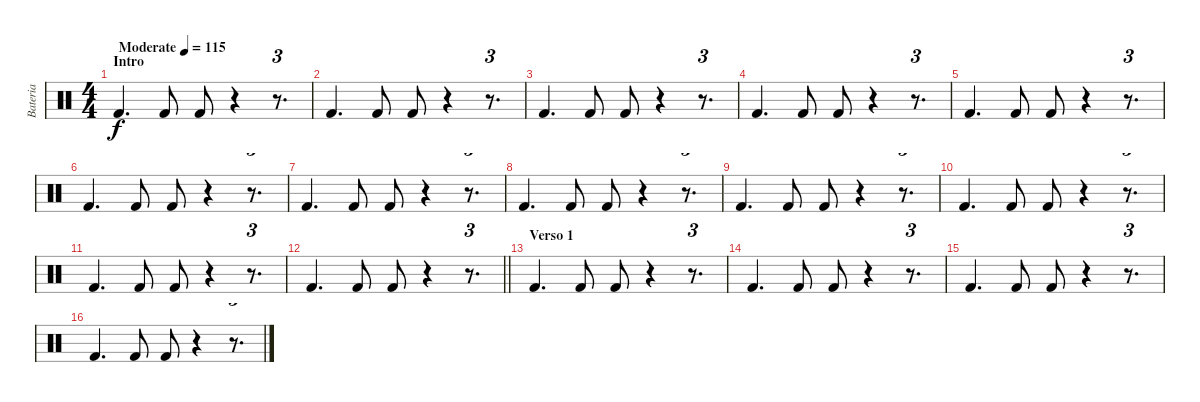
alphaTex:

\track ("Bateria" "Bateria") {instrument percussion}
\staff {score}
\articulation defaults
\ts (4 4)
\section ("" "Intro")
\tempo (115 "Moderate")
\clef neutral
\ks c "Kick (hit) 2".4{d dy f} "Kick (hit) 2".8 "Kick (hit) 2".8
r.4 r.8{d tu (3 2)} |
"Kick (hit) 2".4{d} "Kick (hit) 2".8 "Kick (hit) 2".8 r.4 r.8{d tu (3 2)} |
"Kick (hit) 2".4{d} "Kick (hit) 2".8 "Kick (hit) 2".8 r.4 r.8{d tu (3 2)} |
"Kick (hit) 2".4{d} "Kick (hit) 2".8 "Kick (hit) 2".8 r.4 r.8{d tu (3 2)} |
"Kick (hit) 2".4{d} "Kick (hit) 2".8 "Kick (hit) 2".8 r.4 r.8{d tu (3 2)} |
"Kick (hit) 2".4{d} "Kick (hit) 2".8 "Kick (hit) 2".8 r.4 r.8{d tu (3 2)} |
"Kick (hit) 2".4{d} "Kick (hit) 2".8 "Kick (hit) 2".8 r.4 r.8{d tu (3 2)} |
"Kick (hit) 2".4{d} "Kick (hit) 2".8 "Kick (hit) 2".8 r.4 r.8{d tu (3 2)} |
"Kick (hit) 2".4{d} "Kick (hit) 2".8 "Kick (hit) 2".8 r.4 r.8{d tu (3 2)} |
"Kick (hit) 2".4{d} "Kick (hit) 2".8 "Kick (hit) 2".8 r.4 r.8{d tu (3 2)} |
"Kick (hit) 2".4{d} "Kick (hit) 2".8 "Kick (hit) 2".8 r.4 r.8{d tu (3 2)} |
\barLineRight lightlight "Kick (hit) 2".4{d} "Kick (hit) 2".8 "Kick (hit) 2".8
r.4 r.8{d tu (3 2)} |
\section ("" "Verso 1")
"Kick (hit) 2".4{d} "Kick (hit) 2".8 "Kick (hit) 2".8 r.4 r.8{d tu (3 2)} |
"Kick (hit) 2".4{d} "Kick (hit) 2".8 "Kick (hit) 2".8 r.4 r.8{d tu (3 2)} |
"Kick (hit) 2".4{d} "Kick (hit) 2".8 "Kick (hit) 2".8 r.4 r.8{d tu (3 2)} |
"Kick (hit) 2".4{d} "Kick (hit) 2".8 "Kick (hit) 2".8 r.4 r.8{d tu (3 2)}
